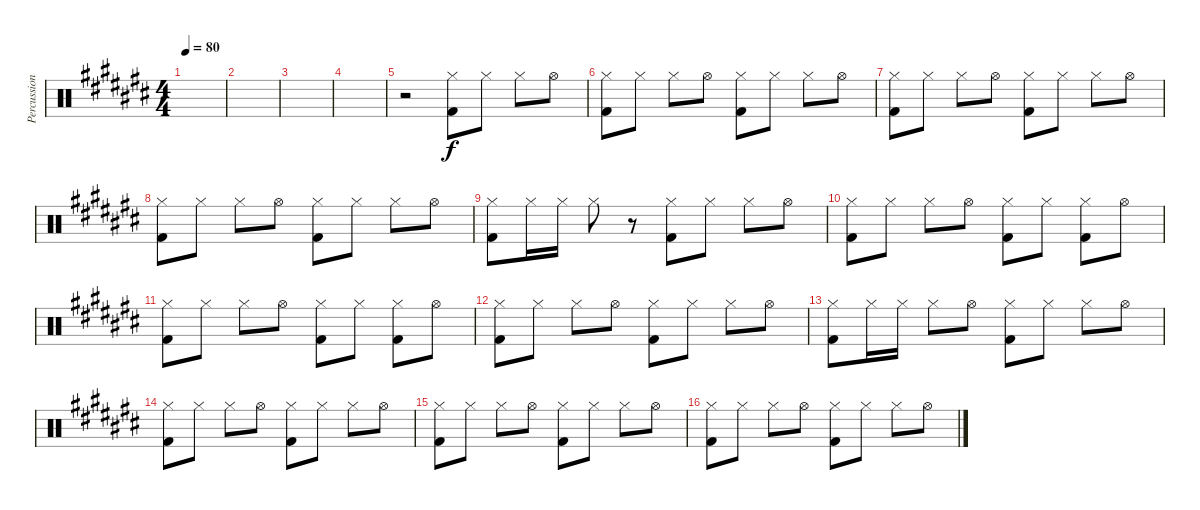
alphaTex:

\track ("Percussion" "Percussion") {instrument percussion}
\staff {score}
\articulation defaults
\ts (4 4)
\tempo 80
\clef neutral
\ks c#
|
|
|
|
r.2 ("Kick (hit) 2" "Hi-Hat (closed)").8 "Hi-Hat (closed)".8 "Hi-Hat (closed)".8 "Hi-Hat (open)".8 |
("Kick (hit) 2" "Hi-Hat (closed)").8 "Hi-Hat (closed)".8 "Hi-Hat (closed)".8 "Hi-Hat (open)".8 ("Kick (hit) 2" "Hi-Hat (closed)").8 "Hi-Hat (closed)".8 "Hi-Hat (closed)".8 "Hi-Hat (open)".8 |
("Kick (hit) 2" "Hi-Hat (closed)").8 "Hi-Hat (closed)".8 "Hi-Hat (closed)".8 "Hi-Hat (open)".8 ("Kick (hit) 2" "Hi-Hat (closed)").8 "Hi-Hat (closed)".8 "Hi-Hat (closed)".8 "Hi-Hat (open)".8 |
("Kick (hit) 2" "Hi-Hat (closed)").8 "Hi-Hat (closed)".8 "Hi-Hat (closed)".8 "Hi-Hat (open)".8 ("Kick (hit) 2" "Hi-Hat (closed)").8 "Hi-Hat (closed)".8 "Hi-Hat (closed)".8 "Hi-Hat (open)".8 |
("Kick (hit) 2" "Hi-Hat (closed)").8 "Hi-Hat (closed)".16 "Hi-Hat (closed)".16 "Hi-Hat (closed)".8 r.8 ("Kick (hit) 2" "Hi-Hat (closed)").8 "Hi-Hat (closed)".8 "Hi-Hat (closed)".8 "Hi-Hat (open)".8 |
("Kick (hit) 2" "Hi-Hat (closed)").8 "Hi-Hat (closed)".8 "Hi-Hat (closed)".8 "Hi-Hat (open)".8 ("Kick (hit) 2" "Hi-Hat (closed)").8 "Hi-Hat (closed)".8 ("Kick (hit) 2" "Hi-Hat (closed)").8 "Hi-Hat (open)".8 |
("Kick (hit) 2" "Hi-Hat (closed)").8 "Hi-Hat (closed)".8 "Hi-Hat (closed)".8 "Hi-Hat (open)".8 ("Kick (hit) 2" "Hi-Hat (closed)").8 "Hi-Hat (closed)".8 ("Kick (hit) 2" "Hi-Hat (closed)").8 "Hi-Hat (open)".8 |
("Kick (hit) 2" "Hi-Hat (closed)").8 "Hi-Hat (closed)".8 "Hi-Hat (closed)".8 "Hi-Hat (open)".8 ("Kick (hit) 2" "Hi-Hat (closed)").8 "Hi-Hat (closed)".8 "Hi-Hat (closed)".8 "Hi-Hat (open)".8 |
("Kick (hit) 2" "Hi-Hat (closed)").8 "Hi-Hat (closed)".16 "Hi-Hat (closed)".16 "Hi-Hat (closed)".8 "Hi-Hat (open)".8 ("Kick (hit) 2" "Hi-Hat (closed)").8 "Hi-Hat (closed)".8 "Hi-Hat (closed)".8 "Hi-Hat (open)".8 |
("Kick (hit) 2" "Hi-Hat (closed)").8 "Hi-Hat (closed)".8 "Hi-Hat (closed)".8 "Hi-Hat (open)".8 ("Kick (hit) 2" "Hi-Hat (closed)").8 "Hi-Hat (closed)".8 "Hi-Hat (closed)".8 "Hi-Hat (open)".8 |
("Kick (hit) 2" "Hi-Hat (closed)").8 "Hi-Hat (closed)".8 "Hi-Hat (closed)".8 "Hi-Hat (open)".8 ("Kick (hit) 2" "Hi-Hat (closed)").8 "Hi-Hat (closed)".8 "Hi-Hat (closed)".8 "Hi-Hat (open)".8 |
("Kick (hit) 2" "Hi-Hat (closed)").8 "Hi-Hat (closed)".8 "Hi-Hat (closed)".8 "Hi-Hat (open)".8 ("Kick (hit) 2" "Hi-Hat (closed)").8 "Hi-Hat (closed)".8 "Hi-Hat (closed)".8 "Hi-Hat (open)".8
